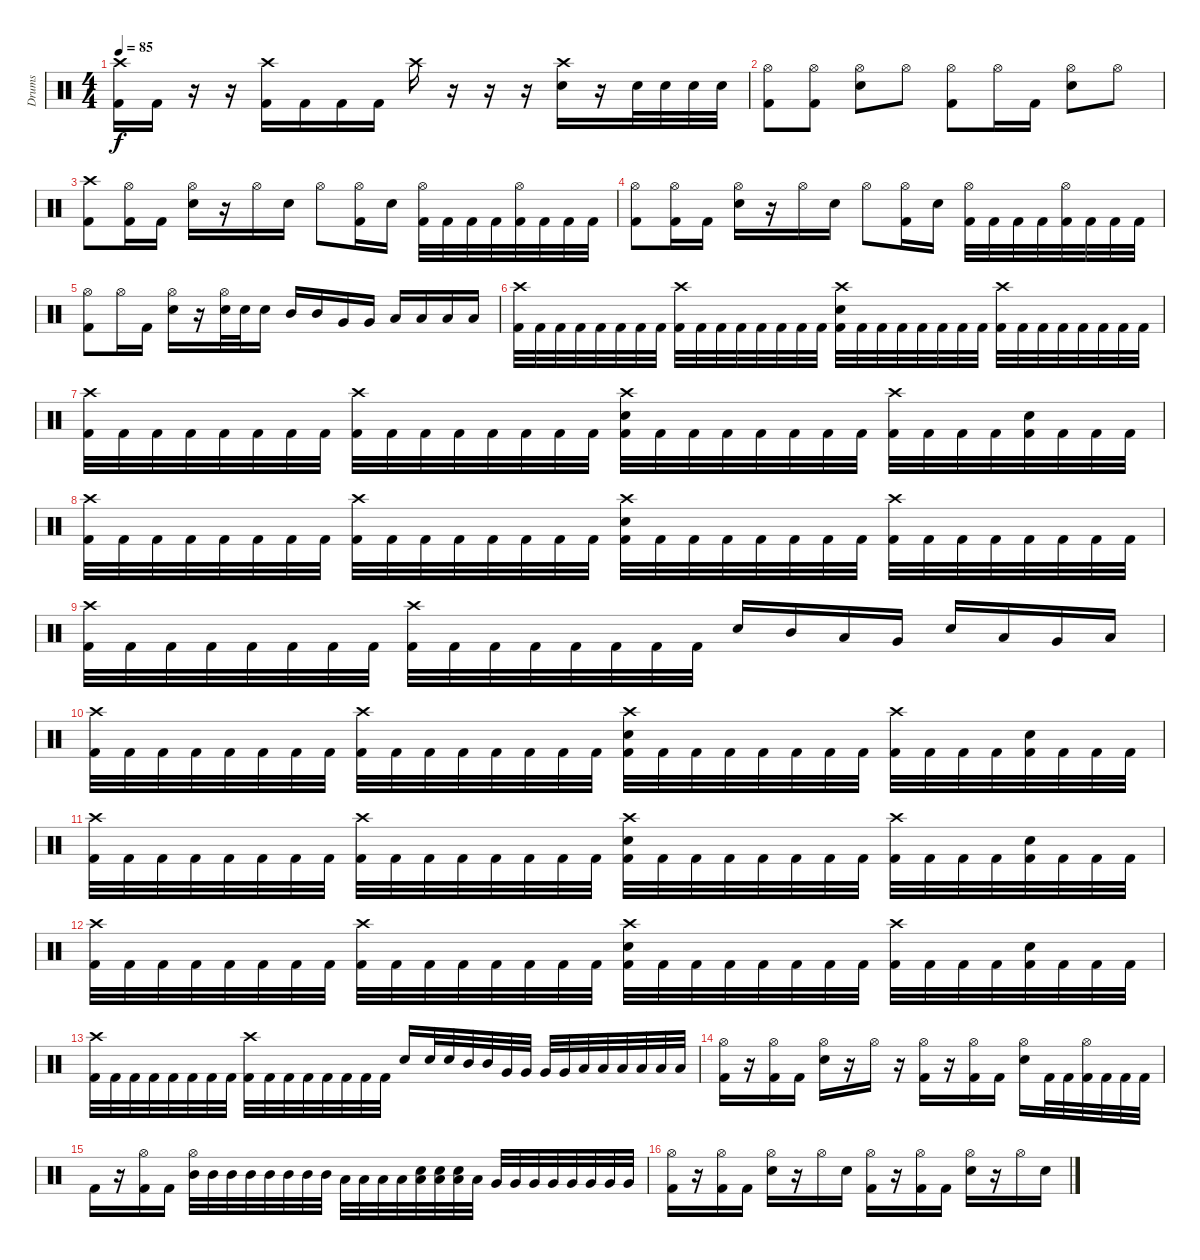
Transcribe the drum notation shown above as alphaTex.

\track ("Drums" "Drums") {instrument percussion}
\staff {score}
\articulation defaults
\ts (4 4)
\tempo 85
\clef neutral
\ks c
("Crash high (hit)" "Kick (hit) 2").16{dy f} "Kick (hit) 2".16 r.16 r.16 ("Crash high (hit)" "Kick (hit) 2").16 "Kick (hit) 2".16 "Kick (hit) 2".16 "Kick (hit) 2".16 "Crash high (hit)".16 r.16 r.16 r.16 ("Crash high (hit)" "Electric Snare (hit)").16 r.16 "Electric Snare (hit)".32 "Electric Snare (hit)".32 "Electric Snare (hit)".32 "Electric Snare (hit)".32 |
("Hi-Hat (open)" "Kick (hit) 2").8 ("Hi-Hat (open)" "Kick (hit) 2").8 ("Hi-Hat (open)" "Electric Snare (hit)").8 "Hi-Hat (open)".8 ("Hi-Hat (open)" "Kick (hit) 2").8 "Hi-Hat (open)".16 "Kick (hit) 2".16 ("Hi-Hat (open)" "Electric Snare (hit)").8 "Hi-Hat (open)".8 |
("Crash high (hit)" "Kick (hit) 2").8 ("Hi-Hat (open)" "Kick (hit) 2").16 "Kick (hit) 2".16 ("Hi-Hat (open)" "Electric Snare (hit)").16 r.16 "Hi-Hat (open)".16 "Electric Snare (hit)".16 "Hi-Hat (open)".8 ("Hi-Hat (open)" "Kick (hit) 2").16 "Electric Snare (hit)".16 ("Hi-Hat (open)" "Kick (hit) 2").32 "Kick (hit) 2".32 "Kick (hit) 2".32 "Kick (hit) 2".32 ("Hi-Hat (open)" "Kick (hit) 2").32 "Kick (hit) 2".32 "Kick (hit) 2".32 "Kick (hit) 2".32 |
("Hi-Hat (open)" "Kick (hit) 2").8 ("Hi-Hat (open)" "Kick (hit) 2").16 "Kick (hit) 2".16 ("Hi-Hat (open)" "Electric Snare (hit)").16 r.16 "Hi-Hat (open)".16 "Electric Snare (hit)".16 "Hi-Hat (open)".8 ("Hi-Hat (open)" "Kick (hit) 2").16 "Electric Snare (hit)".16 ("Hi-Hat (open)" "Kick (hit) 2").32 "Kick (hit) 2".32 "Kick (hit) 2".32 "Kick (hit) 2".32 ("Hi-Hat (open)" "Kick (hit) 2").32 "Kick (hit) 2".32 "Kick (hit) 2".32 "Kick (hit) 2".32 |
("Hi-Hat (open)" "Kick (hit) 2").8 "Hi-Hat (open)".16 "Kick (hit) 2".16 ("Hi-Hat (open)" "Electric Snare (hit)").16 r.16 ("Hi-Hat (open)" "Electric Snare (hit)").32 "Electric Snare (hit)".32 "Electric Snare (hit)".16 "Mid Tom (hit)".16 "Mid Tom (hit)".16 "Very Low Tom (hit)".16 "Very Low Tom (hit)".16 "Low Tom (hit)".16 "Low Tom (hit)".16 "Low Floor Tom (hit)".16 "Low Floor Tom (hit)".16 |
("Crash high (hit)" "Kick (hit) 2").32 "Kick (hit) 2".32 "Kick (hit) 2".32 "Kick (hit) 2".32 "Kick (hit) 2".32 "Kick (hit) 2".32 "Kick (hit) 2".32 "Kick (hit) 2".32 ("Crash high (hit)" "Kick (hit) 2").32 "Kick (hit) 2".32 "Kick (hit) 2".32 "Kick (hit) 2".32 "Kick (hit) 2".32 "Kick (hit) 2".32 "Kick (hit) 2".32 "Kick (hit) 2".32 ("Crash high (hit)" "Electric Snare (hit)" "Kick (hit) 2").32 "Kick (hit) 2".32 "Kick (hit) 2".32 "Kick (hit) 2".32 "Kick (hit) 2".32 "Kick (hit) 2".32 "Kick (hit) 2".32 "Kick (hit) 2".32 ("Crash high (hit)" "Kick (hit) 2").32 "Kick (hit) 2".32 "Kick (hit) 2".32 "Kick (hit) 2".32 "Kick (hit) 2".32 "Kick (hit) 2".32 "Kick (hit) 2".32 "Kick (hit) 2".32 |
("Crash high (hit)" "Kick (hit) 2").32 "Kick (hit) 2".32 "Kick (hit) 2".32 "Kick (hit) 2".32 "Kick (hit) 2".32 "Kick (hit) 2".32 "Kick (hit) 2".32 "Kick (hit) 2".32 ("Crash high (hit)" "Kick (hit) 2").32 "Kick (hit) 2".32 "Kick (hit) 2".32 "Kick (hit) 2".32 "Kick (hit) 2".32 "Kick (hit) 2".32 "Kick (hit) 2".32 "Kick (hit) 2".32 ("Crash high (hit)" "Electric Snare (hit)" "Kick (hit) 2").32 "Kick (hit) 2".32 "Kick (hit) 2".32 "Kick (hit) 2".32 "Kick (hit) 2".32 "Kick (hit) 2".32 "Kick (hit) 2".32 "Kick (hit) 2".32 ("Crash high (hit)" "Kick (hit) 2").32 "Kick (hit) 2".32 "Kick (hit) 2".32 "Kick (hit) 2".32 ("Electric Snare (hit)" "Kick (hit) 2").32 "Kick (hit) 2".32 "Kick (hit) 2".32 "Kick (hit) 2".32 |
("Crash high (hit)" "Kick (hit) 2").32 "Kick (hit) 2".32 "Kick (hit) 2".32 "Kick (hit) 2".32 "Kick (hit) 2".32 "Kick (hit) 2".32 "Kick (hit) 2".32 "Kick (hit) 2".32 ("Crash high (hit)" "Kick (hit) 2").32 "Kick (hit) 2".32 "Kick (hit) 2".32 "Kick (hit) 2".32 "Kick (hit) 2".32 "Kick (hit) 2".32 "Kick (hit) 2".32 "Kick (hit) 2".32 ("Crash high (hit)" "Electric Snare (hit)" "Kick (hit) 2").32 "Kick (hit) 2".32 "Kick (hit) 2".32 "Kick (hit) 2".32 "Kick (hit) 2".32 "Kick (hit) 2".32 "Kick (hit) 2".32 "Kick (hit) 2".32 ("Crash high (hit)" "Kick (hit) 2").32 "Kick (hit) 2".32 "Kick (hit) 2".32 "Kick (hit) 2".32 "Kick (hit) 2".32 "Kick (hit) 2".32 "Kick (hit) 2".32 "Kick (hit) 2".32 |
("Crash high (hit)" "Kick (hit) 2").32 "Kick (hit) 2".32 "Kick (hit) 2".32 "Kick (hit) 2".32 "Kick (hit) 2".32 "Kick (hit) 2".32 "Kick (hit) 2".32 "Kick (hit) 2".32 ("Crash high (hit)" "Kick (hit) 2").32 "Kick (hit) 2".32 "Kick (hit) 2".32 "Kick (hit) 2".32 "Kick (hit) 2".32 "Kick (hit) 2".32 "Kick (hit) 2".32 "Kick (hit) 2".32 "Electric Snare (hit)".16 "Mid Tom (hit)".16 "Low Tom (hit)".16 "Very Low Tom (hit)".16 "Electric Snare (hit)".16 "Low Tom (hit)".16 "Very Low Tom (hit)".16 "Low Floor Tom (hit)".16 |
("Crash high (hit)" "Kick (hit) 2").32 "Kick (hit) 2".32 "Kick (hit) 2".32 "Kick (hit) 2".32 "Kick (hit) 2".32 "Kick (hit) 2".32 "Kick (hit) 2".32 "Kick (hit) 2".32 ("Crash high (hit)" "Kick (hit) 2").32 "Kick (hit) 2".32 "Kick (hit) 2".32 "Kick (hit) 2".32 "Kick (hit) 2".32 "Kick (hit) 2".32 "Kick (hit) 2".32 "Kick (hit) 2".32 ("Crash high (hit)" "Electric Snare (hit)" "Kick (hit) 2").32 "Kick (hit) 2".32 "Kick (hit) 2".32 "Kick (hit) 2".32 "Kick (hit) 2".32 "Kick (hit) 2".32 "Kick (hit) 2".32 "Kick (hit) 2".32 ("Crash high (hit)" "Kick (hit) 2").32 "Kick (hit) 2".32 "Kick (hit) 2".32 "Kick (hit) 2".32 ("Electric Snare (hit)" "Kick (hit) 2").32 "Kick (hit) 2".32 "Kick (hit) 2".32 "Kick (hit) 2".32 |
("Crash high (hit)" "Kick (hit) 2").32 "Kick (hit) 2".32 "Kick (hit) 2".32 "Kick (hit) 2".32 "Kick (hit) 2".32 "Kick (hit) 2".32 "Kick (hit) 2".32 "Kick (hit) 2".32 ("Crash high (hit)" "Kick (hit) 2").32 "Kick (hit) 2".32 "Kick (hit) 2".32 "Kick (hit) 2".32 "Kick (hit) 2".32 "Kick (hit) 2".32 "Kick (hit) 2".32 "Kick (hit) 2".32 ("Crash high (hit)" "Electric Snare (hit)" "Kick (hit) 2").32 "Kick (hit) 2".32 "Kick (hit) 2".32 "Kick (hit) 2".32 "Kick (hit) 2".32 "Kick (hit) 2".32 "Kick (hit) 2".32 "Kick (hit) 2".32 ("Crash high (hit)" "Kick (hit) 2").32 "Kick (hit) 2".32 "Kick (hit) 2".32 "Kick (hit) 2".32 ("Electric Snare (hit)" "Kick (hit) 2").32 "Kick (hit) 2".32 "Kick (hit) 2".32 "Kick (hit) 2".32 |
("Crash high (hit)" "Kick (hit) 2").32 "Kick (hit) 2".32 "Kick (hit) 2".32 "Kick (hit) 2".32 "Kick (hit) 2".32 "Kick (hit) 2".32 "Kick (hit) 2".32 "Kick (hit) 2".32 ("Crash high (hit)" "Kick (hit) 2").32 "Kick (hit) 2".32 "Kick (hit) 2".32 "Kick (hit) 2".32 "Kick (hit) 2".32 "Kick (hit) 2".32 "Kick (hit) 2".32 "Kick (hit) 2".32 ("Crash high (hit)" "Electric Snare (hit)" "Kick (hit) 2").32 "Kick (hit) 2".32 "Kick (hit) 2".32 "Kick (hit) 2".32 "Kick (hit) 2".32 "Kick (hit) 2".32 "Kick (hit) 2".32 "Kick (hit) 2".32 ("Crash high (hit)" "Kick (hit) 2").32 "Kick (hit) 2".32 "Kick (hit) 2".32 "Kick (hit) 2".32 ("Electric Snare (hit)" "Kick (hit) 2").32 "Kick (hit) 2".32 "Kick (hit) 2".32 "Kick (hit) 2".32 |
("Crash high (hit)" "Kick (hit) 2").32 "Kick (hit) 2".32 "Kick (hit) 2".32 "Kick (hit) 2".32 "Kick (hit) 2".32 "Kick (hit) 2".32 "Kick (hit) 2".32 "Kick (hit) 2".32 ("Crash high (hit)" "Kick (hit) 2").32 "Kick (hit) 2".32 "Kick (hit) 2".32 "Kick (hit) 2".32 "Kick (hit) 2".32 "Kick (hit) 2".32 "Kick (hit) 2".32 "Kick (hit) 2".32 "Electric Snare (hit)".16 "Electric Snare (hit)".32 "Electric Snare (hit)".32 "Mid Tom (hit)".32 "Mid Tom (hit)".32 "Very Low Tom (hit)".32 "Very Low Tom (hit)".32 "Very Low Tom (hit)".32 "Very Low Tom (hit)".32 "Low Tom (hit)".32 "Low Tom (hit)".32 "Low Tom (hit)".32 "Low Tom (hit)".32 "Low Floor Tom (hit)".32 "Low Floor Tom (hit)".32 |
("Hi-Hat (open)" "Kick (hit) 2").16 r.16 ("Hi-Hat (open)" "Kick (hit) 2").16 "Kick (hit) 2".16 ("Hi-Hat (open)" "Electric Snare (hit)").16 r.16 "Hi-Hat (open)".16 r.16 ("Hi-Hat (open)" "Kick (hit) 2").16 r.16 ("Hi-Hat (open)" "Kick (hit) 2").16 "Kick (hit) 2".16 ("Hi-Hat (open)" "Electric Snare (hit)").16 "Kick (hit) 2".32 "Kick (hit) 2".32 ("Hi-Hat (open)" "Kick (hit) 2").32 "Kick (hit) 2".32 "Kick (hit) 2".32 "Kick (hit) 2".32 |
"Kick (hit) 2".16 r.16 ("Hi-Hat (open)" "Kick (hit) 2").16 "Kick (hit) 2".16 ("Hi-Hat (open)" "Mid Tom (hit)").32 "Mid Tom (hit)".32 "Mid Tom (hit)".32 "Mid Tom (hit)".32 "Mid Tom (hit)".32 "Mid Tom (hit)".32 "Mid Tom (hit)".32 "Mid Tom (hit)".32 "Low Tom (hit)".32 "Low Tom (hit)".32 "Low Tom (hit)".32 "Low Tom (hit)".32 ("Low Tom (hit)" "Electric Snare (hit)").32 ("Low Tom (hit)" "Electric Snare (hit)").32 ("Low Tom (hit)" "Electric Snare (hit)").32 "Low Tom (hit)".32 "Very Low Tom (hit)".32 "Very Low Tom (hit)".32 "Very Low Tom (hit)".32 "Very Low Tom (hit)".32 "Very Low Tom (hit)".32 "Very Low Tom (hit)".32 "Very Low Tom (hit)".32 "Very Low Tom (hit)".32 |
("Hi-Hat (open)" "Kick (hit) 2").16 r.16 ("Hi-Hat (open)" "Kick (hit) 2").16 "Kick (hit) 2".16 ("Hi-Hat (open)" "Electric Snare (hit)").16 r.16 "Hi-Hat (open)".16 "Electric Snare (hit)".16 ("Hi-Hat (open)" "Kick (hit) 2").16 r.16 ("Hi-Hat (open)" "Kick (hit) 2").16 "Kick (hit) 2".16 ("Hi-Hat (open)" "Electric Snare (hit)").16 r.16 "Hi-Hat (open)".16 "Electric Snare (hit)".16
